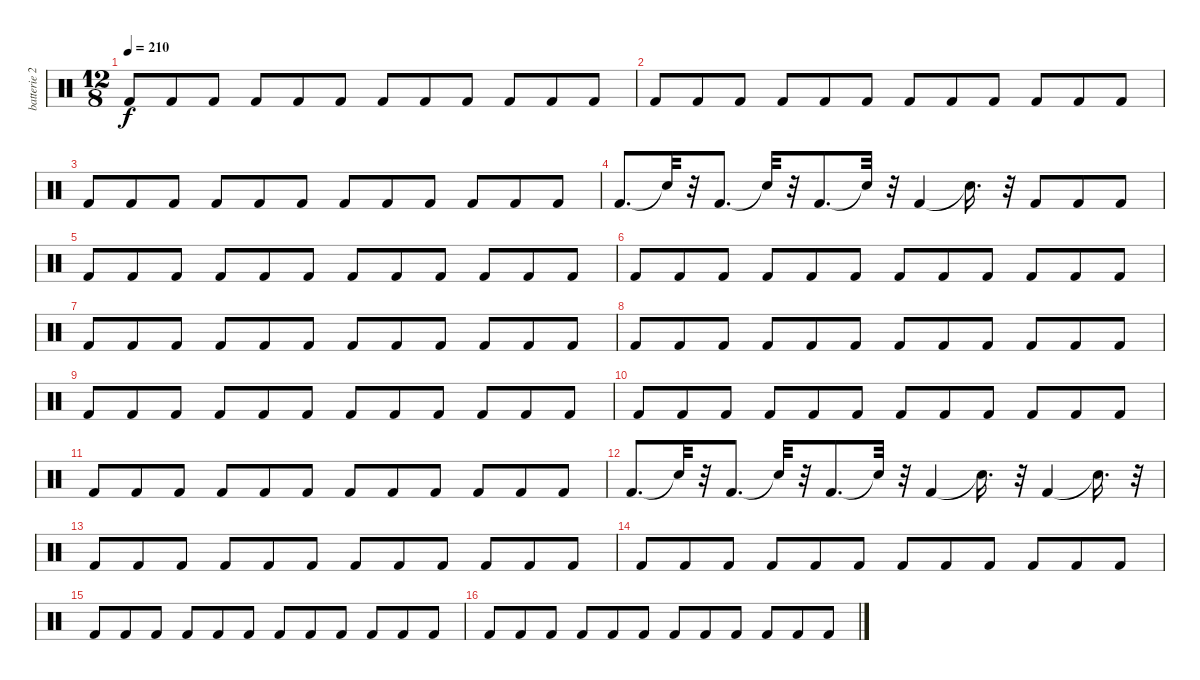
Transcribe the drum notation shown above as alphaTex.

\track ("batterie 2" "batterie 2") {instrument percussion}
\staff {score}
\articulation defaults
\ts (12 8)
\tempo 210
\clef neutral
\ks c "Kick (hit) 2".8{dy f} "Kick (hit) 2".8 "Kick (hit) 2".8 "Kick (hit) 2".8 "Kick (hit) 2".8 "Kick (hit) 2".8 "Kick (hit) 2".8 "Kick (hit) 2".8 "Kick (hit) 2".8 "Kick (hit) 2".8 "Kick (hit) 2".8 "Kick (hit) 2".8
|
"Kick (hit) 2".8 "Kick (hit) 2".8 "Kick (hit) 2".8 "Kick (hit) 2".8 "Kick (hit) 2".8 "Kick (hit) 2".8 "Kick (hit) 2".8 "Kick (hit) 2".8 "Kick (hit) 2".8 "Kick (hit) 2".8 "Kick (hit) 2".8 "Kick (hit) 2".8 |
"Kick (hit) 2".8 "Kick (hit) 2".8 "Kick (hit) 2".8 "Kick (hit) 2".8 "Kick (hit) 2".8 "Kick (hit) 2".8 "Kick (hit) 2".8 "Kick (hit) 2".8 "Kick (hit) 2".8 "Kick (hit) 2".8 "Kick (hit) 2".8 "Kick (hit) 2".8 |
"Kick (hit) 2".8{d} "Snare (hit)"{t}.32 r.32 "Kick (hit) 2".8{d} "Snare (hit)"{t}.32 r.32 "Kick (hit) 2".8{d} "Snare (hit)"{t}.32 r.32 "Kick (hit) 2".4 "Snare (hit)"{t}.16{d} r.32 "Kick (hit) 2".8 "Kick (hit) 2".8 "Kick (hit) 2".8 |
"Kick (hit) 2".8 "Kick (hit) 2".8 "Kick (hit) 2".8 "Kick (hit) 2".8 "Kick (hit) 2".8 "Kick (hit) 2".8 "Kick (hit) 2".8 "Kick (hit) 2".8 "Kick (hit) 2".8 "Kick (hit) 2".8 "Kick (hit) 2".8 "Kick (hit) 2".8 |
"Kick (hit) 2".8 "Kick (hit) 2".8 "Kick (hit) 2".8 "Kick (hit) 2".8 "Kick (hit) 2".8 "Kick (hit) 2".8 "Kick (hit) 2".8 "Kick (hit) 2".8 "Kick (hit) 2".8 "Kick (hit) 2".8 "Kick (hit) 2".8 "Kick (hit) 2".8 |
"Kick (hit) 2".8 "Kick (hit) 2".8 "Kick (hit) 2".8 "Kick (hit) 2".8 "Kick (hit) 2".8 "Kick (hit) 2".8 "Kick (hit) 2".8 "Kick (hit) 2".8 "Kick (hit) 2".8 "Kick (hit) 2".8 "Kick (hit) 2".8 "Kick (hit) 2".8 |
"Kick (hit) 2".8 "Kick (hit) 2".8 "Kick (hit) 2".8 "Kick (hit) 2".8 "Kick (hit) 2".8 "Kick (hit) 2".8 "Kick (hit) 2".8 "Kick (hit) 2".8 "Kick (hit) 2".8 "Kick (hit) 2".8 "Kick (hit) 2".8 "Kick (hit) 2".8 |
"Kick (hit) 2".8 "Kick (hit) 2".8 "Kick (hit) 2".8 "Kick (hit) 2".8 "Kick (hit) 2".8 "Kick (hit) 2".8 "Kick (hit) 2".8 "Kick (hit) 2".8 "Kick (hit) 2".8 "Kick (hit) 2".8 "Kick (hit) 2".8 "Kick (hit) 2".8 |
"Kick (hit) 2".8 "Kick (hit) 2".8 "Kick (hit) 2".8 "Kick (hit) 2".8 "Kick (hit) 2".8 "Kick (hit) 2".8 "Kick (hit) 2".8 "Kick (hit) 2".8 "Kick (hit) 2".8 "Kick (hit) 2".8 "Kick (hit) 2".8 "Kick (hit) 2".8 |
"Kick (hit) 2".8 "Kick (hit) 2".8 "Kick (hit) 2".8 "Kick (hit) 2".8 "Kick (hit) 2".8 "Kick (hit) 2".8 "Kick (hit) 2".8 "Kick (hit) 2".8 "Kick (hit) 2".8 "Kick (hit) 2".8 "Kick (hit) 2".8 "Kick (hit) 2".8 |
"Kick (hit) 2".8{d} "Snare (hit)"{t}.32 r.32 "Kick (hit) 2".8{d} "Snare (hit)"{t}.32 r.32 "Kick (hit) 2".8{d} "Snare (hit)"{t}.32 r.32 "Kick (hit) 2".4 "Snare (hit)"{t}.16{d} r.32 "Kick (hit) 2".4 "Snare (hit)"{t}.16{d} r.32 |
"Kick (hit) 2".8 "Kick (hit) 2".8 "Kick (hit) 2".8 "Kick (hit) 2".8 "Kick (hit) 2".8 "Kick (hit) 2".8 "Kick (hit) 2".8 "Kick (hit) 2".8 "Kick (hit) 2".8 "Kick (hit) 2".8 "Kick (hit) 2".8 "Kick (hit) 2".8 |
"Kick (hit) 2".8 "Kick (hit) 2".8 "Kick (hit) 2".8 "Kick (hit) 2".8 "Kick (hit) 2".8 "Kick (hit) 2".8 "Kick (hit) 2".8 "Kick (hit) 2".8 "Kick (hit) 2".8 "Kick (hit) 2".8 "Kick (hit) 2".8 "Kick (hit) 2".8 |
"Kick (hit) 2".8 "Kick (hit) 2".8 "Kick (hit) 2".8 "Kick (hit) 2".8 "Kick (hit) 2".8 "Kick (hit) 2".8 "Kick (hit) 2".8 "Kick (hit) 2".8 "Kick (hit) 2".8 "Kick (hit) 2".8 "Kick (hit) 2".8 "Kick (hit) 2".8 |
"Kick (hit) 2".8 "Kick (hit) 2".8 "Kick (hit) 2".8 "Kick (hit) 2".8 "Kick (hit) 2".8 "Kick (hit) 2".8 "Kick (hit) 2".8 "Kick (hit) 2".8 "Kick (hit) 2".8 "Kick (hit) 2".8 "Kick (hit) 2".8 "Kick (hit) 2".8
